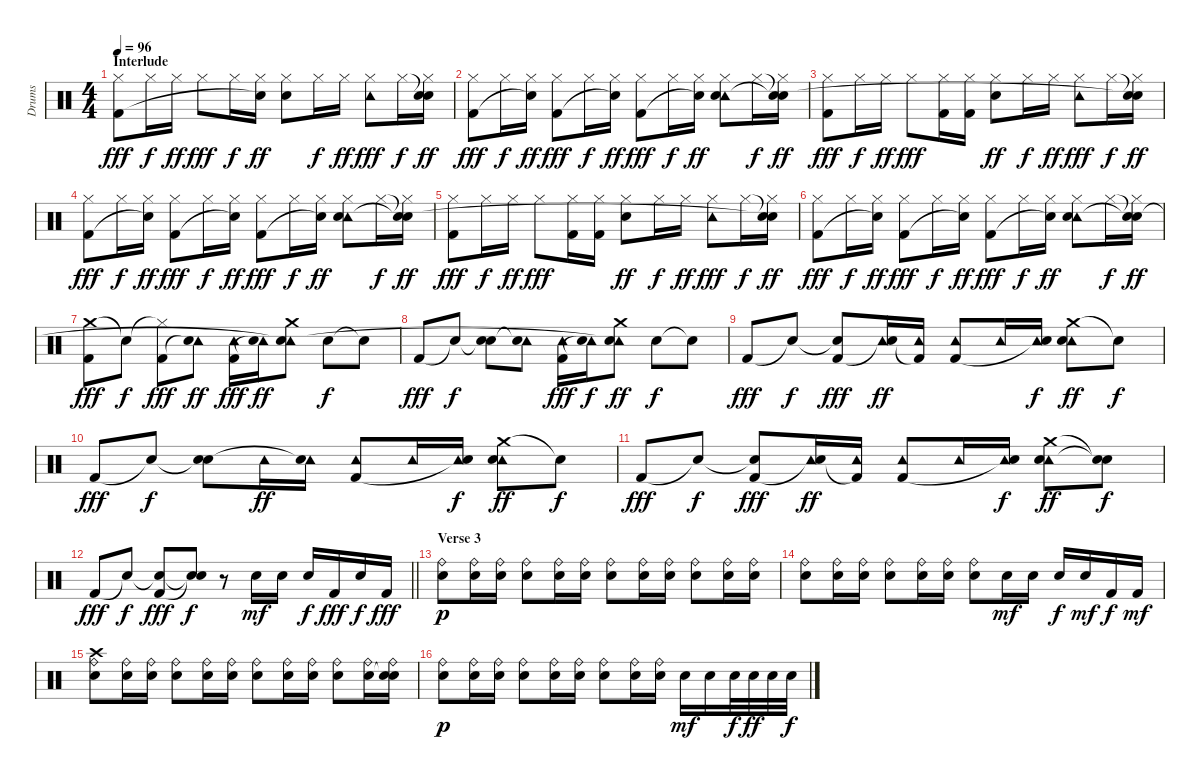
\track ("Drums" "Drums") {instrument percussion}
\staff {score}
\articulation defaults
\ts (4 4)
\section ("" "Interlude")
\tempo 96
\clef neutral
\ks c
("Hi-Hat (closed)" "Kick (hit) 2").8{dy fff} "Hi-Hat (closed)".16{dy f} "Hi-Hat (closed)".16{dy ff} "Hi-Hat (closed)".8{dy fff} "Hi-Hat (closed)".16{dy f} ("Hi-Hat (closed)" "Snare (hit)"{t}).16{dy ff} ("Hi-Hat (closed)" "Snare (hit) 2").8 "Hi-Hat (closed)".16{dy f} "Hi-Hat (closed)".16{dy ff} ("Tambourine (hit)" "Hi-Hat (closed)").8{dy fff} "Hi-Hat (closed)".16{dy f} ("Snare (hit)"{t} "Hi-Hat (closed)" "Snare (hit)").16{dy ff} |
("Hi-Hat (closed)" "Kick (hit) 2").8{dy fff} "Hi-Hat (closed)".16{dy f} ("Hi-Hat (closed)" "Snare (hit)"{t}).16{dy ff} ("Hi-Hat (closed)" "Kick (hit) 2").8{dy fff} "Hi-Hat (closed)".16{dy f} ("Hi-Hat (closed)" "Snare (hit)"{t}).16{dy ff} ("Hi-Hat (closed)" "Kick (hit) 2").8{dy fff} "Hi-Hat (closed)".16{dy f} ("Hi-Hat (closed)" "Snare (hit)"{t}).16{dy ff} ("Tambourine (hit)" "Hi-Hat (closed)" "Snare (hit) 2").8 "Hi-Hat (closed)".16{dy f} ("Snare (hit)"{t} "Hi-Hat (closed)" "Snare (hit)"{t}).16{dy ff} |
("Hi-Hat (closed)" "Kick (hit) 2").8{dy fff} "Hi-Hat (closed)".16{dy f} "Hi-Hat (closed)".16{dy ff} "Hi-Hat (closed)".8{dy fff} ("Hi-Hat (closed)" "Kick (hit) 2").16 ("Hi-Hat (closed)" "Kick (hit) 2").16 ("Hi-Hat (closed)" "Snare (hit) 2").8{dy ff} "Hi-Hat (closed)".16{dy f} "Hi-Hat (closed)".16{dy ff} ("Tambourine (hit)" "Hi-Hat (closed)").8{dy fff} "Hi-Hat (closed)".16{dy f} ("Snare (hit)"{t} "Hi-Hat (closed)" "Snare (hit)"{t}).16{dy ff} |
("Hi-Hat (closed)" "Kick (hit) 2").8{dy fff} "Hi-Hat (closed)".16{dy f} ("Hi-Hat (closed)" "Snare (hit)"{t}).16{dy ff} ("Hi-Hat (closed)" "Kick (hit) 2").8{dy fff} "Hi-Hat (closed)".16{dy f} ("Hi-Hat (closed)" "Snare (hit)"{t}).16{dy ff} ("Hi-Hat (closed)" "Kick (hit) 2").8{dy fff} "Hi-Hat (closed)".16{dy f} ("Hi-Hat (closed)" "Snare (hit)"{t}).16{dy ff} ("Tambourine (hit)" "Hi-Hat (closed)" "Snare (hit) 2").8 "Hi-Hat (closed)".16{dy f} ("Snare (hit)"{t} "Hi-Hat (closed)" "Snare (hit)"{t}).16{dy ff} |
("Hi-Hat (closed)" "Kick (hit) 2").8{dy fff} "Hi-Hat (closed)".16{dy f} "Hi-Hat (closed)".16{dy ff} "Hi-Hat (closed)".8{dy fff} ("Hi-Hat (closed)" "Kick (hit) 2").16 ("Hi-Hat (closed)" "Kick (hit) 2").16 ("Hi-Hat (closed)" "Snare (hit) 2").8{dy ff} "Hi-Hat (closed)".16{dy f} "Hi-Hat (closed)".16{dy ff} ("Tambourine (hit)" "Hi-Hat (closed)").8{dy fff} "Hi-Hat (closed)".16{dy f} ("Snare (hit)"{t} "Hi-Hat (closed)" "Snare (hit)"{t}).16{dy ff} |
("Hi-Hat (closed)" "Kick (hit) 2").8{dy fff} "Hi-Hat (closed)".16{dy f} ("Hi-Hat (closed)" "Snare (hit)"{t}).16{dy ff} ("Hi-Hat (closed)" "Kick (hit) 2").8{dy fff} "Hi-Hat (closed)".16{dy f} ("Hi-Hat (closed)" "Snare (hit)"{t}).16{dy ff} ("Hi-Hat (closed)" "Kick (hit) 2").8{dy fff} "Hi-Hat (closed)".16{dy f} ("Hi-Hat (closed)" "Snare (hit)"{t}).16{dy ff} ("Tambourine (hit)" "Hi-Hat (closed)" "Snare (hit) 2").8 "Hi-Hat (closed)".16{dy f} ("Snare (hit)"{t} "Hi-Hat (closed)" "Snare (hit)"{t}).16{dy ff} |
("Crash medium (hit)" "Kick (hit) 2").8{dy fff} "Snare (hit)"{t}.8{dy f} ("Hi-Hat (closed)"{t} "Kick (hit) 2").8{dy fff} ("Tambourine (hit)" "Snare (hit)"{t}).8{dy ff} ("Tambourine (hit)" "Kick (hit) 2").16{dy fff} ("Tambourine (hit)" "Snare (hit)"{t}).16{dy ff} ("Crash medium (hit)" "Tambourine (hit)" "Snare (hit)"{t}).8 "Snare (hit) 2".8{dy f} "Snare (hit)"{t}.8 |
"Kick (hit) 2".8{dy fff} "Snare (hit)"{t}.8{dy f} ("Snare (hit)"{t} "Snare (hit) 2").8 ("Tambourine (hit)" "Snare (hit)"{t}).8 ("Tambourine (hit)" "Kick (hit) 2").16{dy fff} ("Tambourine (hit)" "Snare (hit)"{t}).16{dy f} ("Crash medium (hit)" "Tambourine (hit)" "Snare (hit)"{t}).8{dy ff} "Snare (hit) 2".8{dy f} "Snare (hit)"{t}.8 |
"Kick (hit) 2".8{dy fff} "Snare (hit)"{t}.8{dy f} ("Snare (hit)"{t} "Kick (hit) 2").8{dy fff} ("Tambourine (hit)" "Snare (hit)"{t}).16{dy ff} ("Tambourine (hit)" "Kick (hit) 2"{t}).16 ("Tambourine (hit)" "Kick (hit) 2").8 "Tambourine (hit)".16 ("Tambourine (hit)" "Snare (hit)"{t}).16{dy f} ("Crash medium (hit)" "Tambourine (hit)" "Snare (hit) 2").8{dy ff} "Snare (hit)"{t}.8{dy f} |
"Kick (hit) 2".8{dy fff} "Snare (hit)"{t}.8{dy f} ("Snare (hit)"{t} "Snare (hit) 2").8 "Tambourine (hit)".16{dy ff} ("Tambourine (hit)" "Snare (hit)"{t}).16 ("Tambourine (hit)" "Kick (hit) 2").8 "Tambourine (hit)".16 ("Tambourine (hit)" "Snare (hit)"{t}).16{dy f} ("Crash medium (hit)" "Tambourine (hit)" "Snare (hit) 2").8{dy ff} "Snare (hit)"{t}.8{dy f} |
"Kick (hit) 2".8{dy fff} "Snare (hit)"{t}.8{dy f} ("Snare (hit)"{t} "Kick (hit) 2").8{dy fff} ("Tambourine (hit)" "Snare (hit)"{t}).16{dy ff} ("Tambourine (hit)" "Kick (hit) 2"{t}).16 ("Tambourine (hit)" "Kick (hit) 2").8 "Tambourine (hit)".16 ("Tambourine (hit)" "Snare (hit)"{t}).16{dy f} ("Crash medium (hit)" "Tambourine (hit)" "Snare (hit) 2").8{dy ff} ("Snare (hit)"{t} "Snare (hit)"{t}).8{dy f} |
\barLineRight lightlight "Kick (hit) 2".8{dy fff} "Snare (hit)"{t}.8{dy f}
("Snare (hit)"{t} "Kick (hit) 2").8{dy fff} ("Snare (hit)"{t} "Snare (hit)"{t}).8{dy f} r.8 "Snare (hit) 2".16{dy mf} "Snare (hit) 2".16 "Snare (hit) 2".16{dy f} "Kick (hit) 2".16{dy fff} "Snare (hit) 2".16{dy f} "Kick (hit) 2".16{dy fff} |
\section ("" "Verse 3")
("Ride (bell)" "Snare (hit) 2").8{dy p} ("Ride (bell)" "Snare (hit) 2").16 ("Ride (bell)" "Snare (hit) 2").16 ("Ride (bell)" "Snare (hit) 2").8 ("Ride (bell)" "Snare (hit) 2").16 ("Ride (bell)" "Snare (hit) 2").16 ("Ride (bell)" "Snare (hit) 2").8 ("Ride (bell)" "Snare (hit) 2").16 ("Ride (bell)" "Snare (hit) 2").16 ("Ride (bell)" "Snare (hit) 2").8 ("Ride (bell)" "Snare (hit) 2").16 ("Ride (bell)" "Snare (hit) 2").16 |
("Ride (bell)" "Snare (hit) 2").8 ("Ride (bell)" "Snare (hit) 2").16 ("Ride (bell)" "Snare (hit) 2").16 ("Ride (bell)" "Snare (hit) 2").8 ("Ride (bell)" "Snare (hit) 2").16 ("Ride (bell)" "Snare (hit) 2").16 ("Ride (bell)" "Snare (hit) 2").8 "Snare (hit) 2".16{dy mf} "Snare (hit) 2".16 "Snare (hit) 2".16{dy f} "Snare (hit) 2".16{dy mf} "Kick (hit) 2".16{dy f} "Kick (hit) 2".16{dy mf} |
("Crash high (hit)" "Snare (hit) 2" "Ride (bell)").8 ("Snare (hit) 2" "Ride (bell)").16 ("Snare (hit) 2" "Ride (bell)").16 ("Snare (hit) 2" "Ride (bell)").8 ("Snare (hit) 2" "Ride (bell)").16 ("Snare (hit) 2" "Ride (bell)").16 ("Snare (hit) 2" "Ride (bell)").8 ("Snare (hit) 2" "Ride (bell)").16 ("Snare (hit) 2" "Ride (bell)").16 ("Snare (hit) 2" "Ride (bell)").8 ("Snare (hit) 2" "Ride (bell)").16 ("Snare (hit)"{t} "Snare (hit) 2" "Ride (bell)").16 |
("Ride (bell)" "Snare (hit) 2").8{dy p} ("Ride (bell)" "Snare (hit) 2").16 ("Ride (bell)" "Snare (hit) 2").16 ("Ride (bell)" "Snare (hit) 2").8 ("Ride (bell)" "Snare (hit) 2").16 ("Ride (bell)" "Snare (hit) 2").16 ("Ride (bell)" "Snare (hit) 2").8 ("Ride (bell)" "Snare (hit) 2").16 ("Ride (bell)" "Snare (hit) 2").16 "Snare (hit) 2".16{dy mf} "Snare (hit) 2".16 "Snare (hit) 2".32{dy f} "Snare (hit) 2".32{dy ff} "Snare (hit) 2".32 "Snare (hit) 2".32{dy f}
